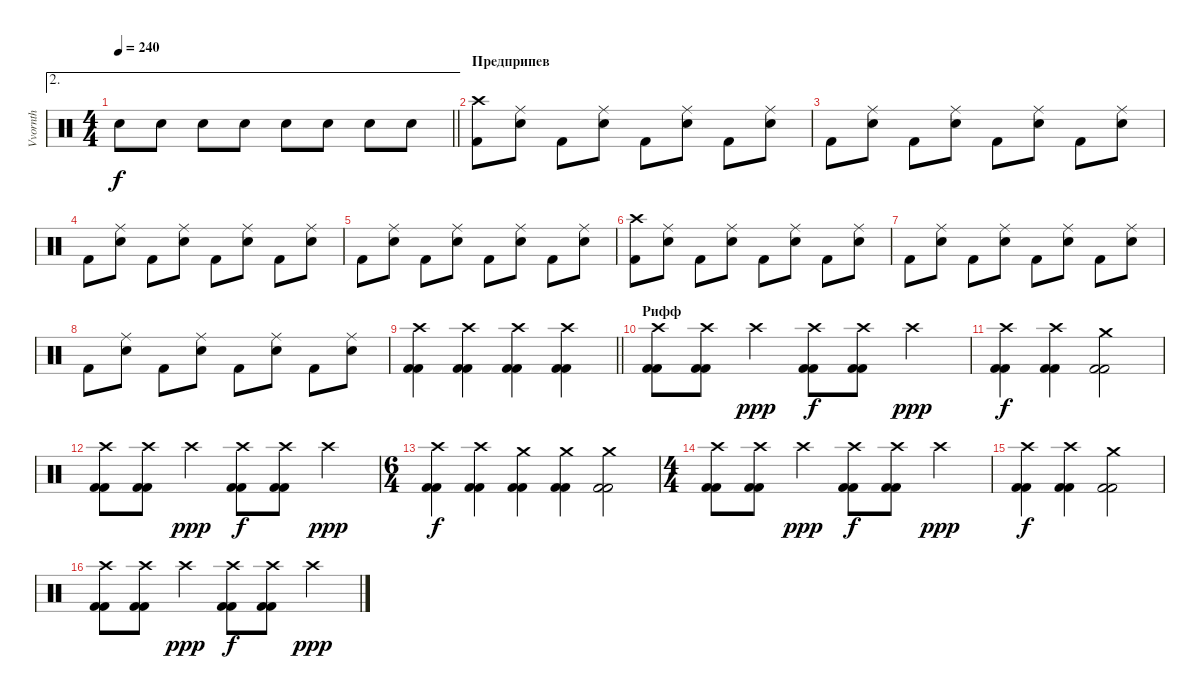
\track ("Vvornth" "Vvornth") {instrument percussion}
\staff {score}
\articulation defaults
\ae 2
\ts (4 4)
\tempo 240
\clef neutral
\barLineRight lightlight
\ks c "Snare (hit) 2".8{dy f} "Snare (hit) 2".8 "Snare (hit) 2".8 "Snare (hit) 2".8 "Snare (hit) 2".8 "Snare (hit) 2".8 "Snare (hit) 2".8 "Snare (hit) 2".8
|
\section ("" "Предприпев")
("Crash high (hit)" "Kick (hit) 2").8 ("Ride (middle)" "Snare (hit) 2").8 "Kick (hit) 2".8 ("Ride (middle)" "Snare (hit) 2").8 "Kick (hit) 2".8 ("Ride (middle)" "Snare (hit) 2").8 "Kick (hit) 2".8 ("Ride (middle)" "Snare (hit) 2").8 |
"Kick (hit) 2".8 ("Ride (middle)" "Snare (hit) 2").8 "Kick (hit) 2".8 ("Ride (middle)" "Snare (hit) 2").8 "Kick (hit) 2".8 ("Ride (middle)" "Snare (hit) 2").8 "Kick (hit) 2".8 ("Ride (middle)" "Snare (hit) 2").8 |
"Kick (hit) 2".8 ("Ride (middle)" "Snare (hit) 2").8 "Kick (hit) 2".8 ("Ride (middle)" "Snare (hit) 2").8 "Kick (hit) 2".8 ("Ride (middle)" "Snare (hit) 2").8 "Kick (hit) 2".8 ("Ride (middle)" "Snare (hit) 2").8 |
"Kick (hit) 2".8 ("Ride (middle)" "Snare (hit) 2").8 "Kick (hit) 2".8 ("Ride (middle)" "Snare (hit) 2").8 "Kick (hit) 2".8 ("Ride (middle)" "Snare (hit) 2").8 "Kick (hit) 2".8 ("Ride (middle)" "Snare (hit) 2").8 |
("Crash high (hit)" "Kick (hit) 2").8 ("Ride (middle)" "Snare (hit) 2").8 "Kick (hit) 2".8 ("Ride (middle)" "Snare (hit) 2").8 "Kick (hit) 2".8 ("Ride (middle)" "Snare (hit) 2").8 "Kick (hit) 2".8 ("Ride (middle)" "Snare (hit) 2").8 |
"Kick (hit) 2".8 ("Ride (middle)" "Snare (hit) 2").8 "Kick (hit) 2".8 ("Ride (middle)" "Snare (hit) 2").8 "Kick (hit) 2".8 ("Ride (middle)" "Snare (hit) 2").8 "Kick (hit) 2".8 ("Ride (middle)" "Snare (hit) 2").8 |
"Kick (hit) 2".8 ("Ride (middle)" "Snare (hit) 2").8 "Kick (hit) 2".8 ("Ride (middle)" "Snare (hit) 2").8 "Kick (hit) 2".8 ("Ride (middle)" "Snare (hit) 2").8 "Kick (hit) 2".8 ("Ride (middle)" "Snare (hit) 2").8 |
\barLineRight lightlight
("Crash high (hit)" "Kick (hit) 2" "Kick (hit) 2").4 ("Crash high (hit)" "Kick (hit) 2" "Kick (hit) 2").4 ("Crash high (hit)" "Kick (hit) 2" "Kick (hit) 2").4 ("Crash high (hit)" "Kick (hit) 2" "Kick (hit) 2").4 |
\section ("" "Рифф")
("Crash high (hit)" "Kick (hit) 2" "Kick (hit) 2").8 ("Crash high (hit)" "Kick (hit) 2" "Kick (hit) 2").8 "Crash high (hit)".4{dy ppp} ("Crash high (hit)" "Kick (hit) 2" "Kick (hit) 2").8{dy f} ("Crash high (hit)" "Kick (hit) 2" "Kick (hit) 2").8 "Crash high (hit)".4{dy ppp} |
("Crash high (hit)" "Kick (hit) 2" "Kick (hit) 2").4{dy f} ("Crash high (hit)" "Kick (hit) 2" "Kick (hit) 2").4 ("Crash medium (hit)" "Kick (hit) 2" "Kick (hit) 2").2 |
("Crash high (hit)" "Kick (hit) 2" "Kick (hit) 2").8 ("Crash high (hit)" "Kick (hit) 2" "Kick (hit) 2").8 "Crash high (hit)".4{dy ppp} ("Crash high (hit)" "Kick (hit) 2" "Kick (hit) 2").8{dy f} ("Crash high (hit)" "Kick (hit) 2" "Kick (hit) 2").8 "Crash high (hit)".4{dy ppp} |
\ts (6 4)
("Crash high (hit)" "Kick (hit) 2" "Kick (hit) 2").4{dy f} ("Crash high (hit)" "Kick (hit) 2" "Kick (hit) 2").4 ("Crash medium (hit)" "Kick (hit) 2" "Kick (hit) 2").4 ("Crash medium (hit)" "Kick (hit) 2" "Kick (hit) 2").4 ("Crash medium (hit)" "Kick (hit) 2" "Kick (hit) 2").2 |
\ts (4 4)
("Crash high (hit)" "Kick (hit) 2" "Kick (hit) 2").8 ("Crash high (hit)" "Kick (hit) 2" "Kick (hit) 2").8 "Crash high (hit)".4{dy ppp} ("Crash high (hit)" "Kick (hit) 2" "Kick (hit) 2").8{dy f} ("Crash high (hit)" "Kick (hit) 2" "Kick (hit) 2").8 "Crash high (hit)".4{dy ppp} |
("Crash high (hit)" "Kick (hit) 2" "Kick (hit) 2").4{dy f} ("Crash high (hit)" "Kick (hit) 2" "Kick (hit) 2").4 ("Crash medium (hit)" "Kick (hit) 2" "Kick (hit) 2").2 |
("Crash high (hit)" "Kick (hit) 2" "Kick (hit) 2").8 ("Crash high (hit)" "Kick (hit) 2" "Kick (hit) 2").8 "Crash high (hit)".4{dy ppp} ("Crash high (hit)" "Kick (hit) 2" "Kick (hit) 2").8{dy f} ("Crash high (hit)" "Kick (hit) 2" "Kick (hit) 2").8 "Crash high (hit)".4{dy ppp}
